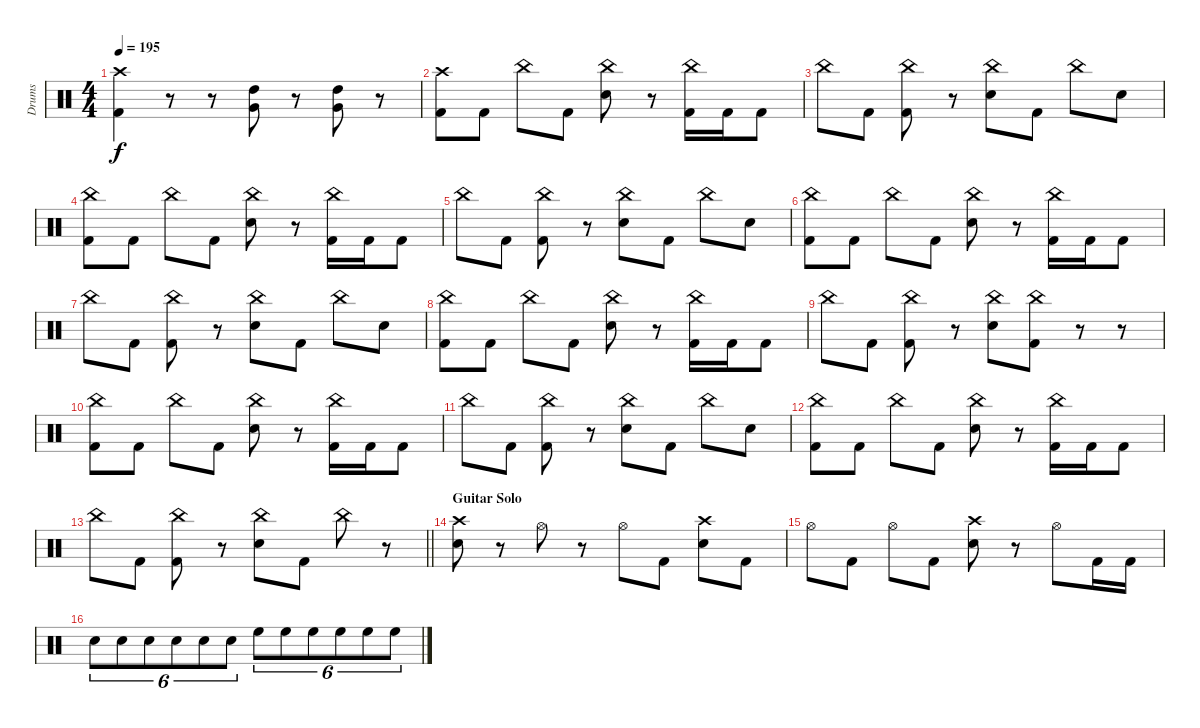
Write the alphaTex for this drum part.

\track ("Drums" "Drums") {instrument percussion}
\staff {score}
\articulation defaults
\ts (4 4)
\tempo 195
\clef neutral
\ks c
("Crash high (hit)" "Kick (hit) 2").4{dy f} r.8 r.8 ("High Tom (hit)" "Very Low Tom (hit)").8 r.8 ("High Tom (hit)" "Very Low Tom (hit)").8 r.8 |
("Crash high (hit)" "Kick (hit) 2").8 "Kick (hit) 2".8 "China (hit)".8 "Kick (hit) 2".8 ("China (hit)" "Snare (hit) 2").8 r.8 ("China (hit)" "Kick (hit) 2").16 "Kick (hit) 2".16 "Kick (hit) 2".8 |
"China (hit)".8 "Kick (hit) 2".8 ("China (hit)" "Kick (hit) 2").8 r.8 ("China (hit)" "Snare (hit) 2").8 "Kick (hit) 2".8 "China (hit)".8 "Snare (hit) 2".8 |
("China (hit)" "Kick (hit) 2").8 "Kick (hit) 2".8 "China (hit)".8 "Kick (hit) 2".8 ("China (hit)" "Snare (hit) 2").8 r.8 ("China (hit)" "Kick (hit) 2").16 "Kick (hit) 2".16 "Kick (hit) 2".8 |
"China (hit)".8 "Kick (hit) 2".8 ("China (hit)" "Kick (hit) 2").8 r.8 ("China (hit)" "Snare (hit) 2").8 "Kick (hit) 2".8 "China (hit)".8 "Snare (hit) 2".8 |
("China (hit)" "Kick (hit) 2").8 "Kick (hit) 2".8 "China (hit)".8 "Kick (hit) 2".8 ("China (hit)" "Snare (hit) 2").8 r.8 ("China (hit)" "Kick (hit) 2").16 "Kick (hit) 2".16 "Kick (hit) 2".8 |
"China (hit)".8 "Kick (hit) 2".8 ("China (hit)" "Kick (hit) 2").8 r.8 ("China (hit)" "Snare (hit) 2").8 "Kick (hit) 2".8 "China (hit)".8 "Snare (hit) 2".8 |
("China (hit)" "Kick (hit) 2").8 "Kick (hit) 2".8 "China (hit)".8 "Kick (hit) 2".8 ("China (hit)" "Snare (hit) 2").8 r.8 ("China (hit)" "Kick (hit) 2").16 "Kick (hit) 2".16 "Kick (hit) 2".8 |
"China (hit)".8 "Kick (hit) 2".8 ("China (hit)" "Kick (hit) 2").8 r.8 ("China (hit)" "Snare (hit) 2").8 ("China (hit)" "Kick (hit) 2").8 r.8 r.8 |
("China (hit)" "Kick (hit) 2").8 "Kick (hit) 2".8 "China (hit)".8 "Kick (hit) 2".8 ("China (hit)" "Snare (hit) 2").8 r.8 ("China (hit)" "Kick (hit) 2").16 "Kick (hit) 2".16 "Kick (hit) 2".8 |
"China (hit)".8 "Kick (hit) 2".8 ("China (hit)" "Kick (hit) 2").8 r.8 ("China (hit)" "Snare (hit) 2").8 "Kick (hit) 2".8 "China (hit)".8 "Snare (hit) 2".8 |
("China (hit)" "Kick (hit) 2").8 "Kick (hit) 2".8 "China (hit)".8 "Kick (hit) 2".8 ("China (hit)" "Snare (hit) 2").8 r.8 ("China (hit)" "Kick (hit) 2").16 "Kick (hit) 2".16 "Kick (hit) 2".8 |
\barLineRight lightlight "China (hit)".8 "Kick (hit) 2".8
("China (hit)" "Kick (hit) 2").8 r.8 ("China (hit)" "Snare (hit) 2").8 "Kick (hit) 2".8 "China (hit)".8 r.8 |
\section ("" "Guitar Solo")
("Crash high (hit)" "Snare (hit) 2").8 r.8 "Hi-Hat (open)".8 r.8 "Hi-Hat (open)".8 "Kick (hit) 2".8 ("Crash high (hit)" "Snare (hit) 2").8 "Kick (hit) 2".8 |
"Hi-Hat (open)".8 "Kick (hit) 2".8 "Hi-Hat (open)".8 "Kick (hit) 2".8 ("Crash high (hit)" "Snare (hit) 2").8 r.8 "Hi-Hat (open)".8 "Kick (hit) 2".16 "Kick (hit) 2".16 |
"Snare (hit) 2".8{tu (6 4)} "Snare (hit) 2".8{tu (6 4)} "Snare (hit) 2".8{tu (6 4)} "Snare (hit) 2".8{tu (6 4)} "Snare (hit) 2".8{tu (6 4)} "Snare (hit) 2".8{tu (6 4)} "High Floor Tom (hit)".8{tu (6 4)} "High Floor Tom (hit)".8{tu (6 4)} "High Floor Tom (hit)".8{tu (6 4)} "High Floor Tom (hit)".8{tu (6 4)} "High Floor Tom (hit)".8{tu (6 4)} "High Floor Tom (hit)".8{tu (6 4)}
